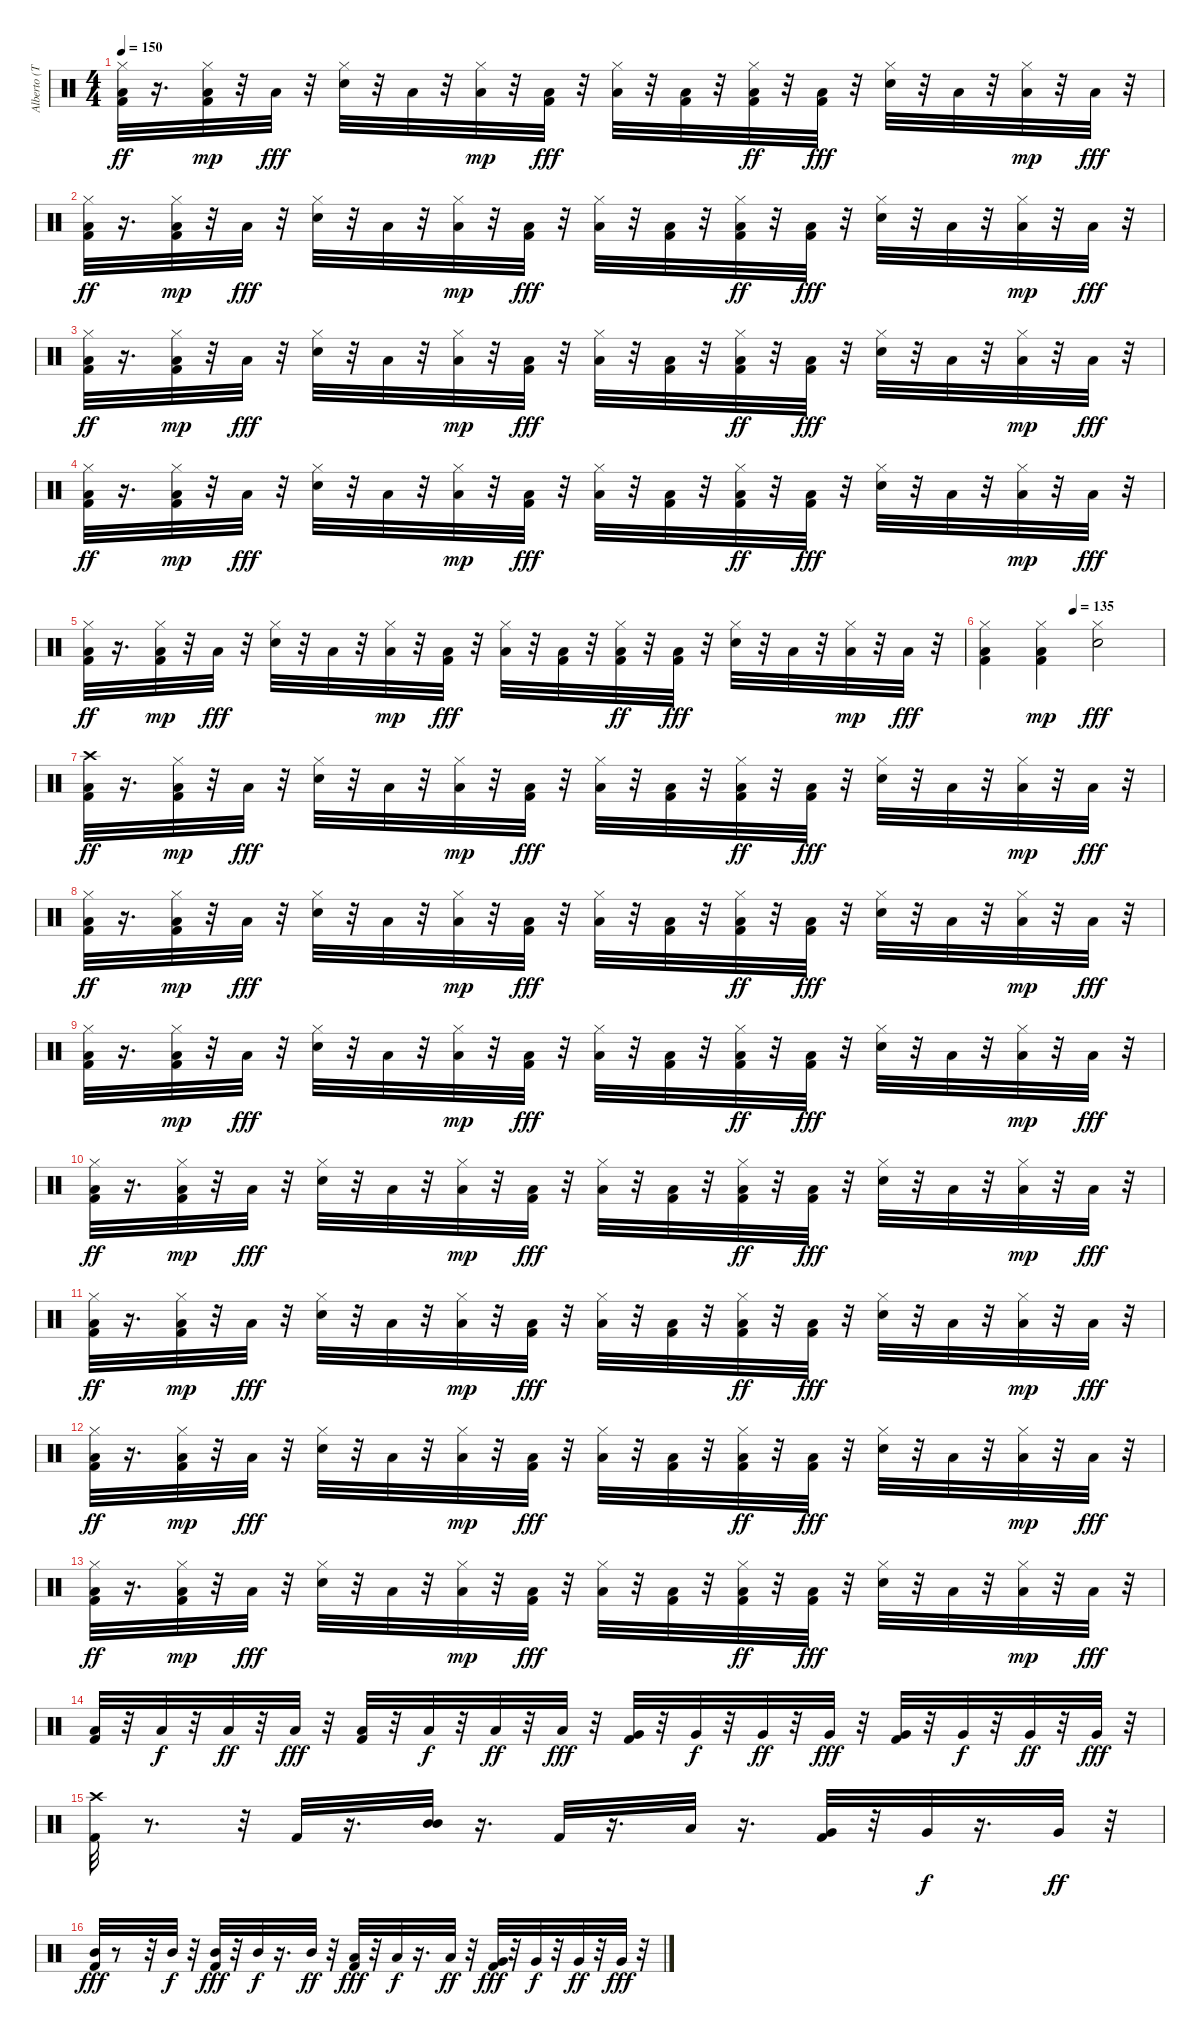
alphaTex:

\track ("Alberto (Toshi)" "Alberto (T") {instrument percussion}
\staff {score}
\articulation defaults
\ts (4 4)
\tempo 150
\clef neutral
\ks c
("Hi-Hat (closed)" "Low Floor Tom (hit)" "Kick (hit) 2").32{dy ff} r.16{d} ("Low Floor Tom (hit)" "Kick (hit) 2" "Hi-Hat (closed)").32{dy mp} r.32 "Low Floor Tom (hit)".32{dy fff} r.32 ("Electric Snare (hit)" "Hi-Hat (closed)").32 r.32 "Low Floor Tom (hit)".32 r.32 ("Low Floor Tom (hit)" "Hi-Hat (closed)").32{dy mp} r.32 ("Kick (hit) 2" "Low Tom (hit)").32{dy fff} r.32 ("Low Floor Tom (hit)" "Hi-Hat (closed)").32 r.32 ("Kick (hit) 2" "Low Tom (hit)").32 r.32 ("Kick (hit) 2" "Hi-Hat (closed)" "Low Tom (hit)").32{dy ff} r.32 ("Kick (hit) 2" "Low Tom (hit)").32{dy fff} r.32 ("Electric Snare (hit)" "Hi-Hat (closed)").32 r.32 "Low Tom (hit)".32 r.32 ("Low Floor Tom (hit)" "Hi-Hat (closed)").32{dy mp} r.32 "Low Tom (hit)".32{dy fff} r.32 |
("Hi-Hat (closed)" "Low Floor Tom (hit)" "Kick (hit) 2").32{dy ff} r.16{d} ("Low Floor Tom (hit)" "Kick (hit) 2" "Hi-Hat (closed)").32{dy mp} r.32 "Low Floor Tom (hit)".32{dy fff} r.32 ("Electric Snare (hit)" "Hi-Hat (closed)").32 r.32 "Low Floor Tom (hit)".32 r.32 ("Low Floor Tom (hit)" "Hi-Hat (closed)").32{dy mp} r.32 ("Kick (hit) 2" "Low Tom (hit)").32{dy fff} r.32 ("Low Floor Tom (hit)" "Hi-Hat (closed)").32 r.32 ("Kick (hit) 2" "Low Tom (hit)").32 r.32 ("Kick (hit) 2" "Hi-Hat (closed)" "Low Tom (hit)").32{dy ff} r.32 ("Kick (hit) 2" "Low Tom (hit)").32{dy fff} r.32 ("Electric Snare (hit)" "Hi-Hat (closed)").32 r.32 "Low Tom (hit)".32 r.32 ("Low Floor Tom (hit)" "Hi-Hat (closed)").32{dy mp} r.32 "Low Tom (hit)".32{dy fff} r.32 |
("Hi-Hat (closed)" "Low Floor Tom (hit)" "Kick (hit) 2").32{dy ff} r.16{d} ("Low Floor Tom (hit)" "Kick (hit) 2" "Hi-Hat (closed)").32{dy mp} r.32 "Low Floor Tom (hit)".32{dy fff} r.32 ("Electric Snare (hit)" "Hi-Hat (closed)").32 r.32 "Low Floor Tom (hit)".32 r.32 ("Low Floor Tom (hit)" "Hi-Hat (closed)").32{dy mp} r.32 ("Kick (hit) 2" "Low Tom (hit)").32{dy fff} r.32 ("Low Floor Tom (hit)" "Hi-Hat (closed)").32 r.32 ("Kick (hit) 2" "Low Tom (hit)").32 r.32 ("Kick (hit) 2" "Hi-Hat (closed)" "Low Tom (hit)").32{dy ff} r.32 ("Kick (hit) 2" "Low Tom (hit)").32{dy fff} r.32 ("Electric Snare (hit)" "Hi-Hat (closed)").32 r.32 "Low Tom (hit)".32 r.32 ("Low Floor Tom (hit)" "Hi-Hat (closed)").32{dy mp} r.32 "Low Tom (hit)".32{dy fff} r.32 |
("Hi-Hat (closed)" "Low Floor Tom (hit)" "Kick (hit) 2").32{dy ff} r.16{d} ("Kick (hit) 2" "Low Floor Tom (hit)" "Hi-Hat (closed)").32{dy mp} r.32 "Low Floor Tom (hit)".32{dy fff} r.32 ("Electric Snare (hit)" "Hi-Hat (closed)").32 r.32 "Low Floor Tom (hit)".32 r.32 ("Low Floor Tom (hit)" "Hi-Hat (closed)").32{dy mp} r.32 ("Kick (hit) 2" "Low Tom (hit)").32{dy fff} r.32 ("Low Floor Tom (hit)" "Hi-Hat (closed)").32 r.32 ("Kick (hit) 2" "Low Tom (hit)").32 r.32 ("Kick (hit) 2" "Hi-Hat (closed)" "Low Tom (hit)").32{dy ff} r.32 ("Kick (hit) 2" "Low Tom (hit)").32{dy fff} r.32 ("Electric Snare (hit)" "Hi-Hat (closed)").32 r.32 "Low Tom (hit)".32 r.32 ("Low Floor Tom (hit)" "Hi-Hat (closed)").32{dy mp} r.32 "Low Tom (hit)".32{dy fff} r.32 |
("Hi-Hat (closed)" "Low Floor Tom (hit)" "Kick (hit) 2").32{dy ff} r.16{d} ("Low Floor Tom (hit)" "Kick (hit) 2" "Hi-Hat (closed)").32{dy mp} r.32 "Low Floor Tom (hit)".32{dy fff} r.32 ("Electric Snare (hit)" "Hi-Hat (closed)").32 r.32 "Low Floor Tom (hit)".32 r.32 ("Low Floor Tom (hit)" "Hi-Hat (closed)").32{dy mp} r.32 ("Kick (hit) 2" "Low Tom (hit)").32{dy fff} r.32 ("Low Floor Tom (hit)" "Hi-Hat (closed)").32 r.32 ("Kick (hit) 2" "Low Tom (hit)").32 r.32 ("Kick (hit) 2" "Hi-Hat (closed)" "Low Tom (hit)").32{dy ff} r.32 ("Kick (hit) 2" "Low Tom (hit)").32{dy fff} r.32 ("Electric Snare (hit)" "Hi-Hat (closed)").32 r.32 "Low Tom (hit)".32 r.32 ("Low Floor Tom (hit)" "Hi-Hat (closed)").32{dy mp} r.32 "Low Tom (hit)".32{dy fff} r.32 |
\tempo (135 0.5)
("Kick (hit) 2" "Hi-Hat (closed)" "Low Floor Tom (hit)").4 ("Low Floor Tom (hit)" "Kick (hit) 2" "Hi-Hat (closed)").4{dy mp} ("Electric Snare (hit)" "Hi-Hat (closed)").2{dy fff} |
("Crash high (hit)" "Low Floor Tom (hit)" "Kick (hit) 2").32{dy ff} r.16{d} ("Low Floor Tom (hit)" "Kick (hit) 2" "Hi-Hat (closed)").32{dy mp} r.32 "Low Floor Tom (hit)".32{dy fff} r.32 ("Electric Snare (hit)" "Hi-Hat (closed)").32 r.32 "Low Floor Tom (hit)".32 r.32 ("Low Floor Tom (hit)" "Hi-Hat (closed)").32{dy mp} r.32 ("Kick (hit) 2" "Low Tom (hit)").32{dy fff} r.32 ("Low Floor Tom (hit)" "Hi-Hat (closed)").32 r.32 ("Kick (hit) 2" "Low Tom (hit)").32 r.32 ("Kick (hit) 2" "Hi-Hat (closed)" "Low Tom (hit)").32{dy ff} r.32 ("Kick (hit) 2" "Low Tom (hit)").32{dy fff} r.32 ("Electric Snare (hit)" "Hi-Hat (closed)").32 r.32 "Low Tom (hit)".32 r.32 ("Low Floor Tom (hit)" "Hi-Hat (closed)").32{dy mp} r.32 "Low Tom (hit)".32{dy fff} r.32 |
("Hi-Hat (closed)" "Low Floor Tom (hit)" "Kick (hit) 2").32{dy ff} r.16{d} ("Low Floor Tom (hit)" "Kick (hit) 2" "Hi-Hat (closed)").32{dy mp} r.32 "Low Floor Tom (hit)".32{dy fff} r.32 ("Electric Snare (hit)" "Hi-Hat (closed)").32 r.32 "Low Floor Tom (hit)".32 r.32 ("Low Floor Tom (hit)" "Hi-Hat (closed)").32{dy mp} r.32 ("Kick (hit) 2" "Low Tom (hit)").32{dy fff} r.32 ("Low Floor Tom (hit)" "Hi-Hat (closed)").32 r.32 ("Kick (hit) 2" "Low Tom (hit)").32 r.32 ("Kick (hit) 2" "Hi-Hat (closed)" "Low Tom (hit)").32{dy ff} r.32 ("Kick (hit) 2" "Low Tom (hit)").32{dy fff} r.32 ("Electric Snare (hit)" "Hi-Hat (closed)").32 r.32 "Low Tom (hit)".32 r.32 ("Low Floor Tom (hit)" "Hi-Hat (closed)").32{dy mp} r.32 "Low Tom (hit)".32{dy fff} r.32 |
("Kick (hit) 2" "Hi-Hat (closed)" "Low Floor Tom (hit)").32 r.16{d} ("Low Floor Tom (hit)" "Kick (hit) 2" "Hi-Hat (closed)").32{dy mp} r.32 "Low Floor Tom (hit)".32{dy fff} r.32 ("Electric Snare (hit)" "Hi-Hat (closed)").32 r.32 "Low Floor Tom (hit)".32 r.32 ("Low Floor Tom (hit)" "Hi-Hat (closed)").32{dy mp} r.32 ("Kick (hit) 2" "Low Tom (hit)").32{dy fff} r.32 ("Low Floor Tom (hit)" "Hi-Hat (closed)").32 r.32 ("Kick (hit) 2" "Low Tom (hit)").32 r.32 ("Kick (hit) 2" "Hi-Hat (closed)" "Low Tom (hit)").32{dy ff} r.32 ("Kick (hit) 2" "Low Tom (hit)").32{dy fff} r.32 ("Electric Snare (hit)" "Hi-Hat (closed)").32 r.32 "Low Tom (hit)".32 r.32 ("Low Floor Tom (hit)" "Hi-Hat (closed)").32{dy mp} r.32 "Low Tom (hit)".32{dy fff} r.32 |
("Hi-Hat (closed)" "Low Floor Tom (hit)" "Kick (hit) 2").32{dy ff} r.16{d} ("Low Floor Tom (hit)" "Kick (hit) 2" "Hi-Hat (closed)").32{dy mp} r.32 "Low Floor Tom (hit)".32{dy fff} r.32 ("Electric Snare (hit)" "Hi-Hat (closed)").32 r.32 "Low Floor Tom (hit)".32 r.32 ("Low Floor Tom (hit)" "Hi-Hat (closed)").32{dy mp} r.32 ("Kick (hit) 2" "Low Tom (hit)").32{dy fff} r.32 ("Low Floor Tom (hit)" "Hi-Hat (closed)").32 r.32 ("Kick (hit) 2" "Low Tom (hit)").32 r.32 ("Kick (hit) 2" "Hi-Hat (closed)" "Low Tom (hit)").32{dy ff} r.32 ("Kick (hit) 2" "Low Tom (hit)").32{dy fff} r.32 ("Electric Snare (hit)" "Hi-Hat (closed)").32 r.32 "Low Tom (hit)".32 r.32 ("Low Floor Tom (hit)" "Hi-Hat (closed)").32{dy mp} r.32 "Low Tom (hit)".32{dy fff} r.32 |
("Hi-Hat (closed)" "Low Floor Tom (hit)" "Kick (hit) 2").32{dy ff} r.16{d} ("Low Floor Tom (hit)" "Kick (hit) 2" "Hi-Hat (closed)").32{dy mp} r.32 "Low Floor Tom (hit)".32{dy fff} r.32 ("Electric Snare (hit)" "Hi-Hat (closed)").32 r.32 "Low Floor Tom (hit)".32 r.32 ("Low Floor Tom (hit)" "Hi-Hat (closed)").32{dy mp} r.32 ("Kick (hit) 2" "Low Tom (hit)").32{dy fff} r.32 ("Low Floor Tom (hit)" "Hi-Hat (closed)").32 r.32 ("Kick (hit) 2" "Low Tom (hit)").32 r.32 ("Kick (hit) 2" "Hi-Hat (closed)" "Low Tom (hit)").32{dy ff} r.32 ("Kick (hit) 2" "Low Tom (hit)").32{dy fff} r.32 ("Electric Snare (hit)" "Hi-Hat (closed)").32 r.32 "Low Tom (hit)".32 r.32 ("Low Floor Tom (hit)" "Hi-Hat (closed)").32{dy mp} r.32 "Low Tom (hit)".32{dy fff} r.32 |
("Hi-Hat (closed)" "Low Floor Tom (hit)" "Kick (hit) 2").32{dy ff} r.16{d} ("Low Floor Tom (hit)" "Kick (hit) 2" "Hi-Hat (closed)").32{dy mp} r.32 "Low Floor Tom (hit)".32{dy fff} r.32 ("Electric Snare (hit)" "Hi-Hat (closed)").32 r.32 "Low Floor Tom (hit)".32 r.32 ("Low Floor Tom (hit)" "Hi-Hat (closed)").32{dy mp} r.32 ("Kick (hit) 2" "Low Tom (hit)").32{dy fff} r.32 ("Low Floor Tom (hit)" "Hi-Hat (closed)").32 r.32 ("Kick (hit) 2" "Low Tom (hit)").32 r.32 ("Kick (hit) 2" "Hi-Hat (closed)" "Low Tom (hit)").32{dy ff} r.32 ("Kick (hit) 2" "Low Tom (hit)").32{dy fff} r.32 ("Electric Snare (hit)" "Hi-Hat (closed)").32 r.32 "Low Tom (hit)".32 r.32 ("Low Floor Tom (hit)" "Hi-Hat (closed)").32{dy mp} r.32 "Low Tom (hit)".32{dy fff} r.32 |
("Hi-Hat (closed)" "Low Floor Tom (hit)" "Kick (hit) 2").32{dy ff} r.16{d} ("Low Floor Tom (hit)" "Kick (hit) 2" "Hi-Hat (closed)").32{dy mp} r.32 "Low Floor Tom (hit)".32{dy fff} r.32 ("Electric Snare (hit)" "Hi-Hat (closed)").32 r.32 "Low Floor Tom (hit)".32 r.32 ("Low Floor Tom (hit)" "Hi-Hat (closed)").32{dy mp} r.32 ("Kick (hit) 2" "Low Tom (hit)").32{dy fff} r.32 ("Low Floor Tom (hit)" "Hi-Hat (closed)").32 r.32 ("Kick (hit) 2" "Low Tom (hit)").32 r.32 ("Kick (hit) 2" "Hi-Hat (closed)" "Low Tom (hit)").32{dy ff} r.32 ("Kick (hit) 2" "Low Tom (hit)").32{dy fff} r.32 ("Electric Snare (hit)" "Hi-Hat (closed)").32 r.32 "Low Tom (hit)".32 r.32 ("Low Floor Tom (hit)" "Hi-Hat (closed)").32{dy mp} r.32 "Low Tom (hit)".32{dy fff} r.32 |
("Kick (hit) 2" "Low Tom (hit)").32 r.32 "Low Tom (hit)".32{dy f} r.32 "Low Tom (hit)".32{dy ff} r.32 "Low Tom (hit)".32{dy fff} r.32 ("Kick (hit) 2" "Low Tom (hit)").32 r.32 "Low Tom (hit)".32{dy f} r.32 "Low Tom (hit)".32{dy ff} r.32 "Low Tom (hit)".32{dy fff} r.32 ("Kick (hit) 2" "Very Low Tom (hit)").32 r.32 "Very Low Tom (hit)".32{dy f} r.32 "Very Low Tom (hit)".32{dy ff} r.32 "Very Low Tom (hit)".32{dy fff} r.32 ("Kick (hit) 2" "Very Low Tom (hit)").32 r.32 "Very Low Tom (hit)".32{dy f} r.32 "Very Low Tom (hit)".32{dy ff} r.32 "Very Low Tom (hit)".32{dy fff} r.32 |
("Crash high (hit)" "Kick (hit) 2").32 r.8{d} r.32 "Kick (hit) 2".32 r.16{d} ("Mid Tom (hit)" "Mid Tom (hit)").32 r.16{d} "Kick (hit) 2".32 r.16{d} "Low Tom (hit)".32 r.16{d} ("Very Low Tom (hit)" "Kick (hit) 2").32 r.32 "Very Low Tom (hit)".32{dy f} r.16{d} "Very Low Tom (hit)".32{dy ff} r.32 |
("Kick (hit) 2" "Mid Tom (hit)").32{dy fff} r.8 r.32 "Mid Tom (hit)".32{dy f} r.32 ("Kick (hit) 2" "Mid Tom (hit)").32{dy fff} r.32 "Mid Tom (hit)".32{dy f} r.16{d} "Mid Tom (hit)".32{dy ff} r.32 ("Low Tom (hit)" "Kick (hit) 2").32{dy fff} r.32 "Low Tom (hit)".32{dy f} r.16{d} "Low Tom (hit)".32{dy ff} r.32 ("Very Low Tom (hit)" "Kick (hit) 2").32{dy fff} r.32 "Very Low Tom (hit)".32{dy f} r.32 "Very Low Tom (hit)".32{dy ff} r.32 "Very Low Tom (hit)".32{dy fff} r.32
